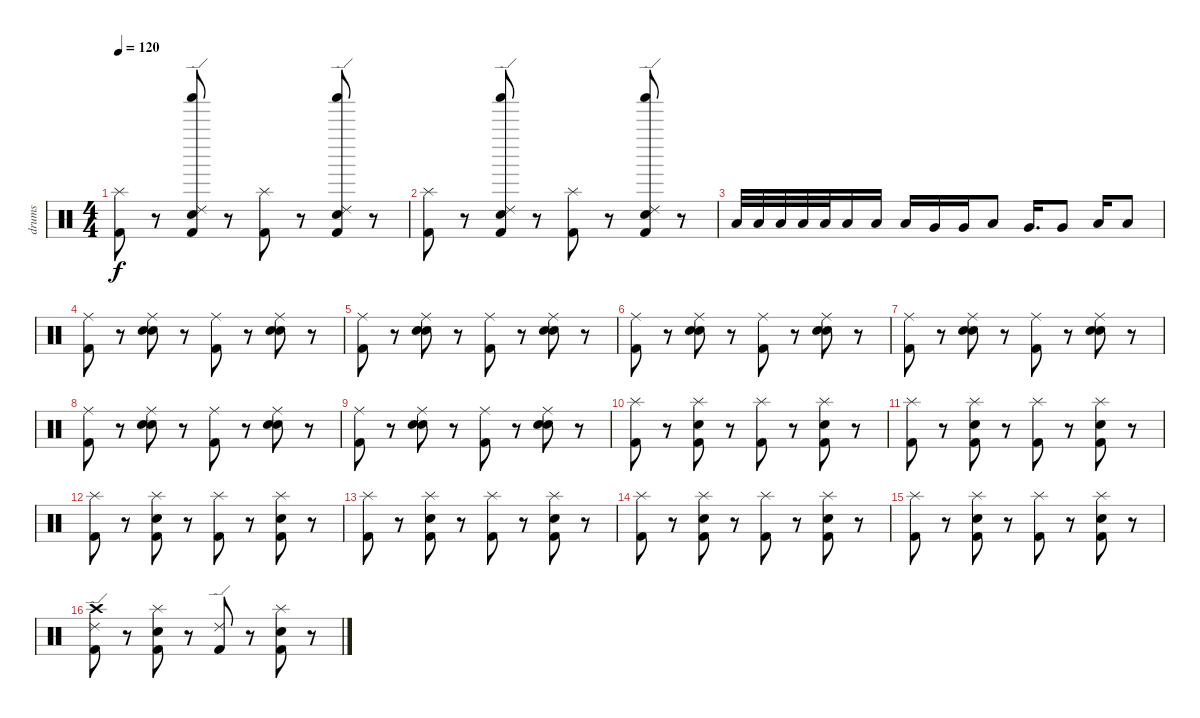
\track ("drums" "drums") {instrument percussion}
\staff {score}
\articulation defaults
\ts (4 4)
\tempo 120
\clef neutral
\ks c
("Splash (hit)" "Kick (hit) 2").8{dy f} r.8 ("Shaker (hit)" "Ride (edge) 2" "Snare (hit) 2" "Kick (hit) 2").8 r.8 ("Splash (hit)" "Kick (hit) 2").8 r.8 ("Shaker (hit)" "Ride (edge) 2" "Snare (hit) 2" "Kick (hit) 2").8 r.8 |
("Splash (hit)" "Kick (hit) 2").8 r.8 ("Shaker (hit)" "Ride (edge) 2" "Snare (hit) 2" "Kick (hit) 2").8 r.8 ("Splash (hit)" "Kick (hit) 2").8 r.8 ("Shaker (hit)" "Ride (edge) 2" "Snare (hit) 2" "Kick (hit) 2").8 r.8 |
"Low Tom (hit)".32 "Low Tom (hit)".32 "Low Tom (hit)".32 "Low Tom (hit)".32 "Low Tom (hit)".32 "Low Tom (hit)".16 "Low Tom (hit)".16 "Low Tom (hit)".16 "Very Low Tom (hit)".16 "Very Low Tom (hit)".16 "Low Tom (hit)".8 "Very Low Tom (hit)".16{d} "Very Low Tom (hit)".8 "Low Floor Tom (hit)".16 "Low Floor Tom (hit)".8 |
("Ride (middle)" "Kick (hit) 2").8 r.8 ("Ride (middle)" "Snare (hit) 2" "Snare (hit) 2").8 r.8 ("Ride (middle)" "Kick (hit) 2").8 r.8 ("Ride (middle)" "Snare (hit) 2" "Snare (hit) 2").8 r.8 |
("Ride (middle)" "Kick (hit) 2").8 r.8 ("Ride (middle)" "Snare (hit) 2" "Snare (hit) 2").8 r.8 ("Ride (middle)" "Kick (hit) 2").8 r.8 ("Ride (middle)" "Snare (hit) 2" "Snare (hit) 2").8 r.8 |
("Ride (middle)" "Kick (hit) 2").8 r.8 ("Ride (middle)" "Snare (hit) 2" "Snare (hit) 2").8 r.8 ("Ride (middle)" "Kick (hit) 2").8 r.8 ("Ride (middle)" "Snare (hit) 2" "Snare (hit) 2").8 r.8 |
("Ride (middle)" "Kick (hit) 2").8 r.8 ("Ride (middle)" "Snare (hit) 2" "Snare (hit) 2").8 r.8 ("Ride (middle)" "Kick (hit) 2").8 r.8 ("Ride (middle)" "Snare (hit) 2" "Snare (hit) 2").8 r.8 |
("Ride (middle)" "Kick (hit) 2").8 r.8 ("Ride (middle)" "Snare (hit) 2" "Snare (hit) 2").8 r.8 ("Ride (middle)" "Kick (hit) 2").8 r.8 ("Ride (middle)" "Snare (hit) 2" "Snare (hit) 2").8 r.8 |
("Ride (middle)" "Kick (hit) 2").8 r.8 ("Ride (middle)" "Snare (hit) 2" "Snare (hit) 2").8 r.8 ("Ride (middle)" "Kick (hit) 2").8 r.8 ("Ride (middle)" "Snare (hit) 2" "Snare (hit) 2").8 r.8 |
("Splash (hit)" "Kick (hit) 2").8 r.8 ("Splash (hit)" "Snare (hit) 2" "Kick (hit) 2").8 r.8 ("Splash (hit)" "Kick (hit) 2").8 r.8 ("Splash (hit)" "Snare (hit) 2" "Kick (hit) 2").8 r.8 |
("Splash (hit)" "Kick (hit) 2").8 r.8 ("Splash (hit)" "Snare (hit) 2" "Kick (hit) 2").8 r.8 ("Splash (hit)" "Kick (hit) 2").8 r.8 ("Splash (hit)" "Snare (hit) 2" "Kick (hit) 2").8 r.8 |
("Splash (hit)" "Kick (hit) 2").8 r.8 ("Splash (hit)" "Snare (hit) 2" "Kick (hit) 2").8 r.8 ("Splash (hit)" "Kick (hit) 2").8 r.8 ("Splash (hit)" "Snare (hit) 2" "Kick (hit) 2").8 r.8 |
("Splash (hit)" "Kick (hit) 2").8 r.8 ("Splash (hit)" "Snare (hit) 2" "Kick (hit) 2").8 r.8 ("Splash (hit)" "Kick (hit) 2").8 r.8 ("Splash (hit)" "Snare (hit) 2" "Kick (hit) 2").8 r.8 |
("Splash (hit)" "Kick (hit) 2").8 r.8 ("Splash (hit)" "Snare (hit) 2" "Kick (hit) 2").8 r.8 ("Splash (hit)" "Kick (hit) 2").8 r.8 ("Splash (hit)" "Snare (hit) 2" "Kick (hit) 2").8 r.8 |
("Splash (hit)" "Kick (hit) 2").8 r.8 ("Splash (hit)" "Snare (hit) 2" "Kick (hit) 2").8 r.8 ("Splash (hit)" "Kick (hit) 2").8 r.8 ("Splash (hit)" "Snare (hit) 2" "Kick (hit) 2").8 r.8 |
("Crash high (hit)" "Ride (edge) 2" "Kick (hit) 2").8 r.8 ("Splash (hit)" "Snare (hit) 2" "Kick (hit) 2").8 r.8 ("Ride (edge) 2" "Kick (hit) 2").8 r.8 ("Splash (hit)" "Snare (hit) 2" "Kick (hit) 2").8 r.8
